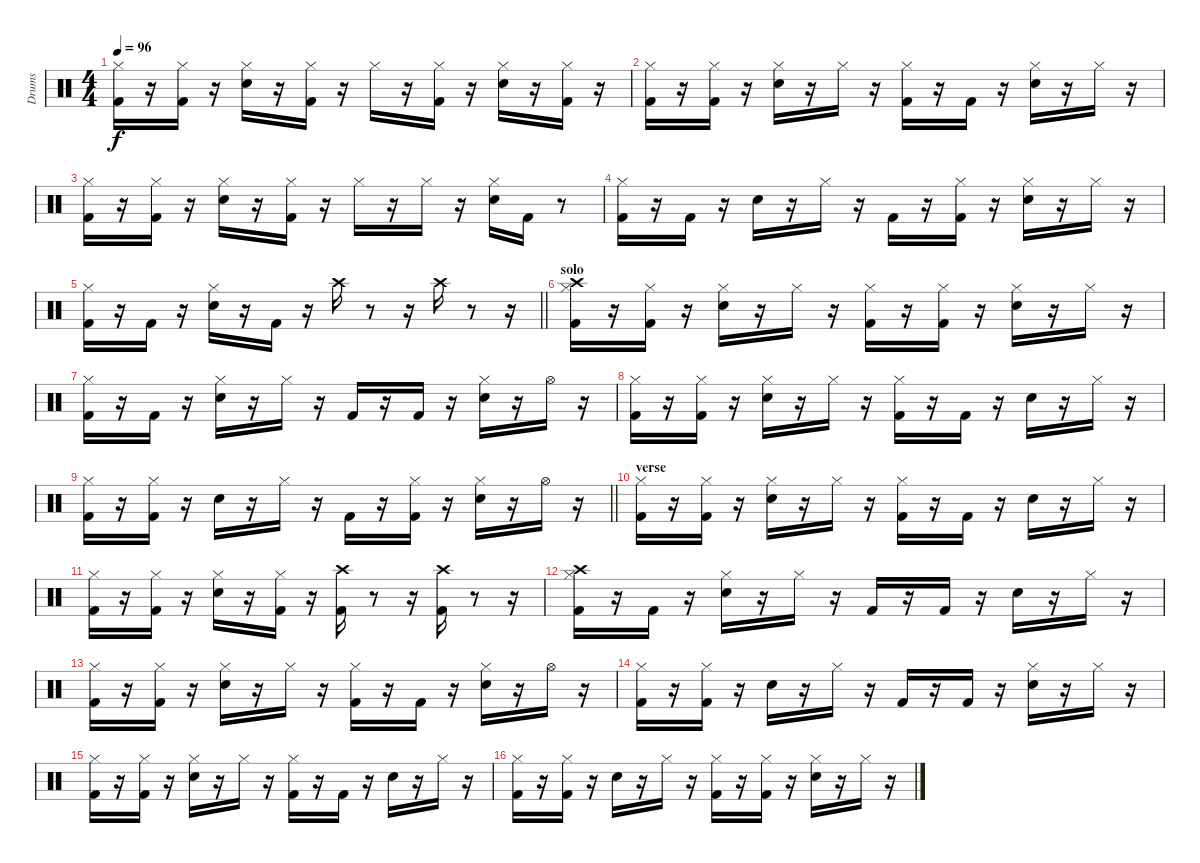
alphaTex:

\track ("Drums" "Drums") {instrument percussion}
\staff {score}
\articulation defaults
\ts (4 4)
\tempo 96
\clef neutral
\ks c
("Kick (hit) 2" "Hi-Hat (closed)").16{dy f} r.16 ("Kick (hit) 2" "Hi-Hat (closed)").16 r.16 ("Snare (hit) 2" "Hi-Hat (closed)").16 r.16 ("Kick (hit) 2" "Hi-Hat (closed)").16 r.16 "Hi-Hat (closed)".16 r.16 ("Kick (hit) 2" "Hi-Hat (closed)").16 r.16 ("Snare (hit) 2" "Hi-Hat (closed)").16 r.16 ("Kick (hit) 2" "Hi-Hat (closed)").16 r.16 |
("Kick (hit) 2" "Hi-Hat (closed)").16 r.16 ("Kick (hit) 2" "Hi-Hat (closed)").16 r.16 ("Snare (hit) 2" "Hi-Hat (closed)").16 r.16 "Hi-Hat (closed)".16 r.16 ("Kick (hit) 2" "Hi-Hat (closed)").16 r.16 "Kick (hit) 2".16 r.16 ("Snare (hit) 2" "Hi-Hat (closed)").16 r.16 "Hi-Hat (closed)".16 r.16 |
("Kick (hit) 2" "Hi-Hat (closed)").16 r.16 ("Kick (hit) 2" "Hi-Hat (closed)").16 r.16 ("Snare (hit) 2" "Hi-Hat (closed)").16 r.16 ("Kick (hit) 2" "Hi-Hat (closed)").16 r.16 "Hi-Hat (closed)".16 r.16 "Hi-Hat (closed)".16 r.16 ("Snare (hit) 2" "Hi-Hat (closed)").16 "Kick (hit) 2".16 r.8 |
("Kick (hit) 2" "Hi-Hat (closed)").16 r.16 "Kick (hit) 2".16 r.16 "Snare (hit) 2".16 r.16 "Hi-Hat (closed)".16 r.16 "Kick (hit) 2".16 r.16 ("Kick (hit) 2" "Hi-Hat (closed)").16 r.16 ("Snare (hit) 2" "Hi-Hat (closed)").16 r.16 "Hi-Hat (closed)".16 r.16 |
\barLineRight lightlight
("Kick (hit) 2" "Hi-Hat (closed)").16 r.16 "Kick (hit) 2".16 r.16 ("Snare (hit) 2" "Hi-Hat (closed)").16 r.16 "Kick (hit) 2".16 r.16 "Crash high (hit)".16 r.8 r.16 "Crash high (hit)".16 r.8 r.16 |
\section ("" "solo")
("Kick (hit) 2" "Hi-Hat (closed)" "Crash high (hit)").16 r.16 ("Kick (hit) 2" "Hi-Hat (closed)").16 r.16 ("Snare (hit) 2" "Hi-Hat (closed)").16 r.16 "Hi-Hat (closed)".16 r.16 ("Kick (hit) 2" "Hi-Hat (closed)").16 r.16 ("Kick (hit) 2" "Hi-Hat (closed)").16 r.16 ("Snare (hit) 2" "Hi-Hat (closed)").16 r.16 "Hi-Hat (closed)".16 r.16 |
("Kick (hit) 2" "Hi-Hat (closed)").16 r.16 "Kick (hit) 2".16 r.16 ("Snare (hit) 2" "Hi-Hat (closed)").16 r.16 "Hi-Hat (closed)".16 r.16 "Kick (hit) 2".16 r.16 "Kick (hit) 2".16 r.16 ("Snare (hit) 2" "Hi-Hat (closed)").16 r.16 "Hi-Hat (open)".16 r.16 |
("Kick (hit) 2" "Hi-Hat (closed)").16 r.16 ("Kick (hit) 2" "Hi-Hat (closed)").16 r.16 ("Snare (hit) 2" "Hi-Hat (closed)").16 r.16 "Hi-Hat (closed)".16 r.16 ("Kick (hit) 2" "Hi-Hat (closed)").16 r.16 "Kick (hit) 2".16 r.16 "Snare (hit) 2".16 r.16 "Hi-Hat (closed)".16 r.16 |
\barLineRight lightlight
("Kick (hit) 2" "Hi-Hat (closed)").16 r.16 ("Kick (hit) 2" "Hi-Hat (closed)").16 r.16 "Snare (hit) 2".16 r.16 "Hi-Hat (closed)".16 r.16 "Kick (hit) 2".16 r.16 ("Kick (hit) 2" "Hi-Hat (closed)").16 r.16 ("Snare (hit) 2" "Hi-Hat (closed)").16 r.16 "Hi-Hat (open)".16 r.16 |
\section ("" "verse")
("Kick (hit) 2" "Hi-Hat (closed)").16 r.16 ("Kick (hit) 2" "Hi-Hat (closed)").16 r.16 ("Snare (hit) 2" "Hi-Hat (closed)").16 r.16 "Hi-Hat (closed)".16 r.16 ("Kick (hit) 2" "Hi-Hat (closed)").16 r.16 "Kick (hit) 2".16 r.16 "Snare (hit) 2".16 r.16 "Hi-Hat (closed)".16 r.16 |
("Kick (hit) 2" "Hi-Hat (closed)").16 r.16 ("Kick (hit) 2" "Hi-Hat (closed)").16 r.16 ("Snare (hit) 2" "Hi-Hat (closed)").16 r.16 ("Kick (hit) 2" "Hi-Hat (closed)").16 r.16 ("Kick (hit) 2" "Crash high (hit)").16 r.8 r.16 ("Kick (hit) 2" "Crash high (hit)").16 r.8 r.16 |
("Kick (hit) 2" "Hi-Hat (closed)" "Crash high (hit)").16 r.16 "Kick (hit) 2".16 r.16 ("Snare (hit) 2" "Hi-Hat (closed)").16 r.16 "Hi-Hat (closed)".16 r.16 "Kick (hit) 2".16 r.16 "Kick (hit) 2".16 r.16 "Snare (hit) 2".16 r.16 "Hi-Hat (closed)".16 r.16 |
("Kick (hit) 2" "Hi-Hat (closed)").16 r.16 ("Kick (hit) 2" "Hi-Hat (closed)").16 r.16 ("Snare (hit) 2" "Hi-Hat (closed)").16 r.16 "Hi-Hat (closed)".16 r.16 ("Kick (hit) 2" "Hi-Hat (closed)").16 r.16 "Kick (hit) 2".16 r.16 ("Snare (hit) 2" "Hi-Hat (closed)").16 r.16 "Hi-Hat (open)".16 r.16 |
("Kick (hit) 2" "Hi-Hat (closed)").16 r.16 ("Kick (hit) 2" "Hi-Hat (closed)").16 r.16 "Snare (hit) 2".16 r.16 "Hi-Hat (closed)".16 r.16 "Kick (hit) 2".16 r.16 "Kick (hit) 2".16 r.16 ("Snare (hit) 2" "Hi-Hat (closed)").16 r.16 "Hi-Hat (closed)".16 r.16 |
("Kick (hit) 2" "Hi-Hat (closed)").16 r.16 ("Kick (hit) 2" "Hi-Hat (closed)").16 r.16 ("Snare (hit) 2" "Hi-Hat (closed)").16 r.16 "Hi-Hat (closed)".16 r.16 ("Kick (hit) 2" "Hi-Hat (closed)").16 r.16 "Kick (hit) 2".16 r.16 "Snare (hit) 2".16 r.16 "Hi-Hat (closed)".16 r.16 |
("Kick (hit) 2" "Hi-Hat (closed)").16 r.16 ("Kick (hit) 2" "Hi-Hat (closed)").16 r.16 "Snare (hit) 2".16 r.16 "Hi-Hat (closed)".16 r.16 ("Kick (hit) 2" "Hi-Hat (closed)").16 r.16 ("Kick (hit) 2" "Hi-Hat (closed)").16 r.16 ("Snare (hit) 2" "Hi-Hat (closed)").16 r.16 "Hi-Hat (closed)".16 r.16
